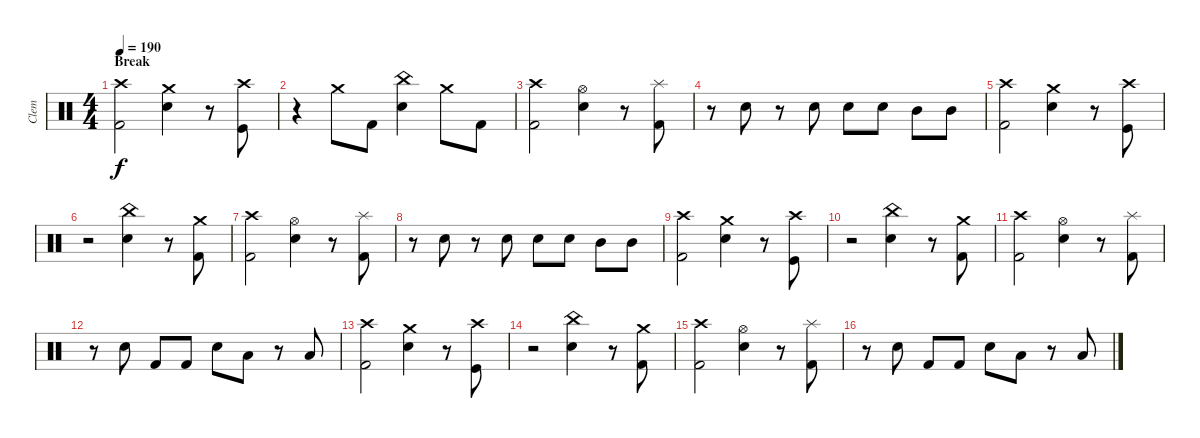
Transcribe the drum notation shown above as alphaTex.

\track ("Clem" "Clem") {instrument percussion}
\staff {score}
\articulation defaults
\ts (4 4)
\section ("" "Break")
\tempo 190
\clef neutral
\ks c
("Crash high (hit)" "Kick (hit) 2").2{dy f} ("Crash medium (hit)" "Electric Snare (hit)").4 r.8 ("Crash high (hit)" "Kick (hit)").8 |
r.4 "Crash medium (hit)".8 "Kick (hit) 2".8 ("China (hit)" "Electric Snare (hit)").4 "Crash medium (hit)".8 "Kick (hit) 2".8 |
("Crash high (hit)" "Kick (hit) 2").2 ("Hi-Hat (open)" "Electric Snare (hit)").4 r.8 ("Splash (hit)" "Kick (hit) 2").8 |
r.8 "Electric Snare (hit)".8 r.8 "Electric Snare (hit)".8 "Electric Snare (hit)".8 "Electric Snare (hit)".8 "Mid Tom (hit)".8 "Mid Tom (hit)".8 |
("Crash high (hit)" "Kick (hit) 2").2 ("Crash medium (hit)" "Electric Snare (hit)").4 r.8 ("Crash high (hit)" "Kick (hit)").8 |
r.2 ("China (hit)" "Electric Snare (hit)").4 r.8 ("Crash medium (hit)" "Kick (hit) 2").8 |
("Crash high (hit)" "Kick (hit) 2").2 ("Hi-Hat (open)" "Electric Snare (hit)").4 r.8 ("Splash (hit)" "Kick (hit) 2").8 |
r.8 "Electric Snare (hit)".8 r.8 "Electric Snare (hit)".8 "Electric Snare (hit)".8 "Electric Snare (hit)".8 "Mid Tom (hit)".8 "Mid Tom (hit)".8 |
("Crash high (hit)" "Kick (hit) 2").2 ("Crash medium (hit)" "Electric Snare (hit)").4 r.8 ("Crash high (hit)" "Kick (hit)").8 |
r.2 ("China (hit)" "Electric Snare (hit)").4 r.8 ("Crash medium (hit)" "Kick (hit) 2").8 |
("Crash high (hit)" "Kick (hit) 2").2 ("Hi-Hat (open)" "Electric Snare (hit)").4 r.8 ("Splash (hit)" "Kick (hit) 2").8 |
r.8 "Electric Snare (hit)".8 "Kick (hit) 2".8 "Kick (hit) 2".8 "Electric Snare (hit)".8 "Low Tom (hit)".8 r.8 "Low Tom (hit)".8 |
("Crash high (hit)" "Kick (hit) 2").2 ("Crash medium (hit)" "Electric Snare (hit)").4 r.8 ("Crash high (hit)" "Kick (hit)").8 |
r.2 ("China (hit)" "Electric Snare (hit)").4 r.8 ("Crash medium (hit)" "Kick (hit) 2").8 |
("Crash high (hit)" "Kick (hit) 2").2 ("Hi-Hat (open)" "Electric Snare (hit)").4 r.8 ("Splash (hit)" "Kick (hit) 2").8 |
r.8 "Electric Snare (hit)".8 "Kick (hit) 2".8 "Kick (hit) 2".8 "Electric Snare (hit)".8 "Low Tom (hit)".8 r.8 "Low Tom (hit)".8
